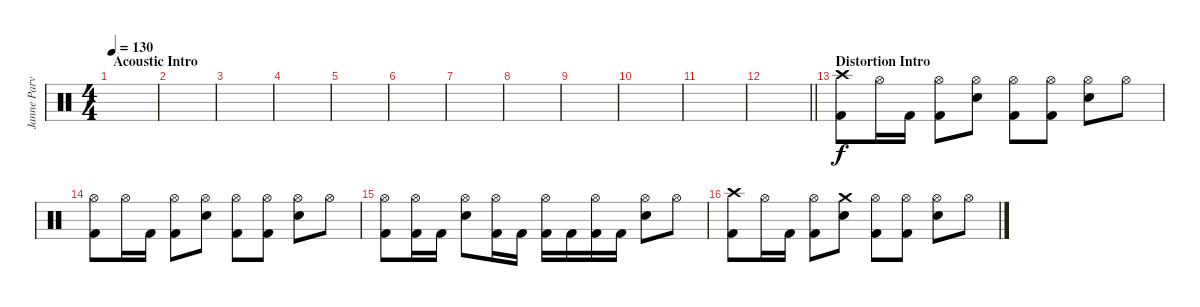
\track ("Janne Parviainen" "Janne Parv") {instrument percussion}
\staff {score}
\articulation defaults
\ts (4 4)
\section ("" "Acoustic Intro")
\tempo 130
\clef neutral
\ks c
|
|
|
|
|
|
|
|
|
|
|
\barLineRight lightlight
|
\section ("" "Distortion Intro")
("Crash high (hit)" "Kick (hit) 2").8 "Hi-Hat (open)".16 "Kick (hit) 2".16 ("Hi-Hat (open)" "Kick (hit) 2").8 ("Hi-Hat (open)" "Electric Snare (hit)").8 ("Hi-Hat (open)" "Kick (hit) 2").8 ("Hi-Hat (open)" "Kick (hit) 2").8 ("Hi-Hat (open)" "Electric Snare (hit)").8 "Hi-Hat (open)".8 |
("Hi-Hat (open)" "Kick (hit) 2").8 "Hi-Hat (open)".16 "Kick (hit) 2".16 ("Hi-Hat (open)" "Kick (hit) 2").8 ("Hi-Hat (open)" "Electric Snare (hit)").8 ("Hi-Hat (open)" "Kick (hit) 2").8 ("Hi-Hat (open)" "Kick (hit) 2").8 ("Hi-Hat (open)" "Electric Snare (hit)").8 "Hi-Hat (open)".8 |
("Hi-Hat (open)" "Kick (hit) 2").8 ("Hi-Hat (open)" "Kick (hit) 2").16 "Kick (hit) 2".16 ("Hi-Hat (open)" "Electric Snare (hit)").8 ("Hi-Hat (open)" "Kick (hit) 2").16 "Kick (hit) 2".16 ("Hi-Hat (open)" "Kick (hit) 2").16 "Kick (hit) 2".16 ("Hi-Hat (open)" "Kick (hit) 2").16 "Kick (hit) 2".16 ("Hi-Hat (open)" "Electric Snare (hit)").8 "Hi-Hat (open)".8 |
("Crash high (hit)" "Kick (hit) 2").8 "Hi-Hat (open)".16 "Kick (hit) 2".16 ("Hi-Hat (open)" "Kick (hit) 2").8 ("Crash medium (hit)" "Electric Snare (hit)").8 ("Hi-Hat (open)" "Kick (hit) 2").8 ("Hi-Hat (open)" "Kick (hit) 2").8 ("Hi-Hat (open)" "Electric Snare (hit)").8 "Hi-Hat (open)".8
